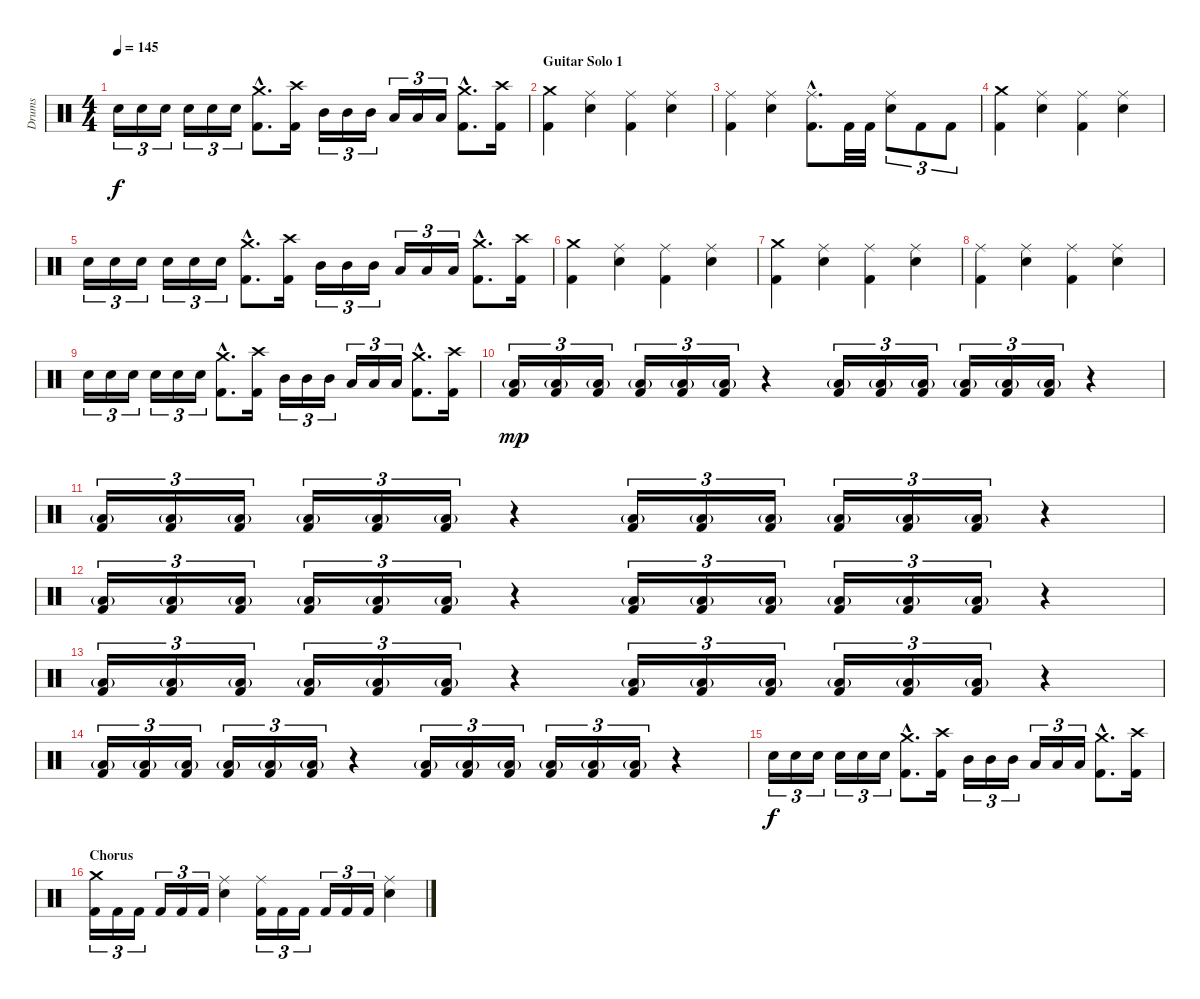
\track ("Drums" "Drums") {instrument percussion}
\staff {score}
\articulation defaults
\ts (4 4)
\tempo 145
\clef neutral
\ks c "Electric Snare (hit)".16{tu (3 2) dy f} "Electric Snare (hit)".16{tu (3 2)} "Electric Snare (hit)".16{tu (3 2)} "Electric Snare (hit)".16{tu (3 2)} "Electric Snare (hit)".16{tu (3 2)} "Electric Snare (hit)".16{tu (3 2)}
("Crash medium (hit)"{hac} "Kick (hit) 2"{hac}).8{d} ("Crash high (hit)" "Kick (hit) 2").16 "Mid Tom (hit)".16{tu (3 2)} "Mid Tom (hit)".16{tu (3 2)} "Mid Tom (hit)".16{tu (3 2)} "Low Tom (hit)".16{tu (3 2)} "Low Tom (hit)".16{tu (3 2)} "Low Tom (hit)".16{tu (3 2)} ("Crash medium (hit)"{hac} "Kick (hit) 2"{hac}).8{d} ("Crash high (hit)" "Kick (hit) 2").16 |
\section ("" "Guitar Solo 1")
("Crash medium (hit)" "Kick (hit) 2").4 ("Ride (middle)" "Electric Snare (hit)").4 ("Ride (middle)" "Kick (hit) 2").4 ("Ride (middle)" "Electric Snare (hit)").4 |
("Ride (middle)" "Kick (hit) 2").4 ("Ride (middle)" "Electric Snare (hit)").4 ("Ride (middle)"{hac} "Kick (hit) 2"{hac}).8{d} "Kick (hit) 2".32 "Kick (hit) 2".32 ("Ride (middle)" "Electric Snare (hit)").8{tu (3 2)} "Kick (hit) 2".8{tu (3 2)} "Kick (hit) 2".8{tu (3 2)} |
("Crash medium (hit)" "Kick (hit) 2").4 ("Ride (middle)" "Electric Snare (hit)").4 ("Ride (middle)" "Kick (hit) 2").4 ("Ride (middle)" "Electric Snare (hit)").4 |
"Electric Snare (hit)".16{tu (3 2)} "Electric Snare (hit)".16{tu (3 2)} "Electric Snare (hit)".16{tu (3 2)} "Electric Snare (hit)".16{tu (3 2)} "Electric Snare (hit)".16{tu (3 2)} "Electric Snare (hit)".16{tu (3 2)} ("Crash medium (hit)"{hac} "Kick (hit) 2"{hac}).8{d} ("Crash high (hit)" "Kick (hit) 2").16 "Mid Tom (hit)".16{tu (3 2)} "Mid Tom (hit)".16{tu (3 2)} "Mid Tom (hit)".16{tu (3 2)} "Low Tom (hit)".16{tu (3 2)} "Low Tom (hit)".16{tu (3 2)} "Low Tom (hit)".16{tu (3 2)} ("Crash medium (hit)"{hac} "Kick (hit) 2"{hac}).8{d} ("Crash high (hit)" "Kick (hit) 2").16 |
("Crash medium (hit)" "Kick (hit) 2").4 ("Ride (middle)" "Electric Snare (hit)").4 ("Ride (middle)" "Kick (hit) 2").4 ("Ride (middle)" "Electric Snare (hit)").4 |
("Crash medium (hit)" "Kick (hit) 2").4 ("Ride (middle)" "Electric Snare (hit)").4 ("Ride (middle)" "Kick (hit) 2").4 ("Ride (middle)" "Electric Snare (hit)").4 |
("Ride (middle)" "Kick (hit) 2").4 ("Ride (middle)" "Electric Snare (hit)").4 ("Ride (middle)" "Kick (hit) 2").4 ("Ride (middle)" "Electric Snare (hit)").4 |
"Electric Snare (hit)".16{tu (3 2)} "Electric Snare (hit)".16{tu (3 2)} "Electric Snare (hit)".16{tu (3 2)} "Electric Snare (hit)".16{tu (3 2)} "Electric Snare (hit)".16{tu (3 2)} "Electric Snare (hit)".16{tu (3 2)} ("Crash medium (hit)"{hac} "Kick (hit) 2"{hac}).8{d} ("Crash high (hit)" "Kick (hit) 2").16 "Mid Tom (hit)".16{tu (3 2)} "Mid Tom (hit)".16{tu (3 2)} "Mid Tom (hit)".16{tu (3 2)} "Low Tom (hit)".16{tu (3 2)} "Low Tom (hit)".16{tu (3 2)} "Low Tom (hit)".16{tu (3 2)} ("Crash medium (hit)"{hac} "Kick (hit) 2"{hac}).8{d} ("Crash high (hit)" "Kick (hit) 2").16 |
\section ("" "")
("Low Floor Tom (hit)"{g} "Kick (hit) 2").16{tu (3 2) dy mp} ("Low Floor Tom (hit)"{g} "Kick (hit) 2").16{tu (3 2)} ("Low Floor Tom (hit)"{g} "Kick (hit) 2").16{tu (3 2)} ("Low Floor Tom (hit)"{g} "Kick (hit) 2").16{tu (3 2)} ("Low Floor Tom (hit)"{g} "Kick (hit) 2").16{tu (3 2)} ("Low Floor Tom (hit)"{g} "Kick (hit) 2").16{tu (3 2)} r.4 ("Low Floor Tom (hit)"{g} "Kick (hit) 2").16{tu (3 2)} ("Low Floor Tom (hit)"{g} "Kick (hit) 2").16{tu (3 2)} ("Low Floor Tom (hit)"{g} "Kick (hit) 2").16{tu (3 2)} ("Low Floor Tom (hit)"{g} "Kick (hit) 2").16{tu (3 2)} ("Low Floor Tom (hit)"{g} "Kick (hit) 2").16{tu (3 2)} ("Low Floor Tom (hit)"{g} "Kick (hit) 2").16{tu (3 2)} r.4 |
("Low Floor Tom (hit)"{g} "Kick (hit) 2").16{tu (3 2)} ("Low Floor Tom (hit)"{g} "Kick (hit) 2").16{tu (3 2)} ("Low Floor Tom (hit)"{g} "Kick (hit) 2").16{tu (3 2)} ("Low Floor Tom (hit)"{g} "Kick (hit) 2").16{tu (3 2)} ("Low Floor Tom (hit)"{g} "Kick (hit) 2").16{tu (3 2)} ("Low Floor Tom (hit)"{g} "Kick (hit) 2").16{tu (3 2)} r.4 ("Low Floor Tom (hit)"{g} "Kick (hit) 2").16{tu (3 2)} ("Low Floor Tom (hit)"{g} "Kick (hit) 2").16{tu (3 2)} ("Low Floor Tom (hit)"{g} "Kick (hit) 2").16{tu (3 2)} ("Low Floor Tom (hit)"{g} "Kick (hit) 2").16{tu (3 2)} ("Low Floor Tom (hit)"{g} "Kick (hit) 2").16{tu (3 2)} ("Low Floor Tom (hit)"{g} "Kick (hit) 2").16{tu (3 2)} r.4 |
("Low Floor Tom (hit)"{g} "Kick (hit) 2").16{tu (3 2)} ("Low Floor Tom (hit)"{g} "Kick (hit) 2").16{tu (3 2)} ("Low Floor Tom (hit)"{g} "Kick (hit) 2").16{tu (3 2)} ("Low Floor Tom (hit)"{g} "Kick (hit) 2").16{tu (3 2)} ("Low Floor Tom (hit)"{g} "Kick (hit) 2").16{tu (3 2)} ("Low Floor Tom (hit)"{g} "Kick (hit) 2").16{tu (3 2)} r.4 ("Low Floor Tom (hit)"{g} "Kick (hit) 2").16{tu (3 2)} ("Low Floor Tom (hit)"{g} "Kick (hit) 2").16{tu (3 2)} ("Low Floor Tom (hit)"{g} "Kick (hit) 2").16{tu (3 2)} ("Low Floor Tom (hit)"{g} "Kick (hit) 2").16{tu (3 2)} ("Low Floor Tom (hit)"{g} "Kick (hit) 2").16{tu (3 2)} ("Low Floor Tom (hit)"{g} "Kick (hit) 2").16{tu (3 2)} r.4 |
("Low Floor Tom (hit)"{g} "Kick (hit) 2").16{tu (3 2)} ("Low Floor Tom (hit)"{g} "Kick (hit) 2").16{tu (3 2)} ("Low Floor Tom (hit)"{g} "Kick (hit) 2").16{tu (3 2)} ("Low Floor Tom (hit)"{g} "Kick (hit) 2").16{tu (3 2)} ("Low Floor Tom (hit)"{g} "Kick (hit) 2").16{tu (3 2)} ("Low Floor Tom (hit)"{g} "Kick (hit) 2").16{tu (3 2)} r.4 ("Low Floor Tom (hit)"{g} "Kick (hit) 2").16{tu (3 2)} ("Low Floor Tom (hit)"{g} "Kick (hit) 2").16{tu (3 2)} ("Low Floor Tom (hit)"{g} "Kick (hit) 2").16{tu (3 2)} ("Low Floor Tom (hit)"{g} "Kick (hit) 2").16{tu (3 2)} ("Low Floor Tom (hit)"{g} "Kick (hit) 2").16{tu (3 2)} ("Low Floor Tom (hit)"{g} "Kick (hit) 2").16{tu (3 2)} r.4 |
("Low Floor Tom (hit)"{g} "Kick (hit) 2").16{tu (3 2)} ("Low Floor Tom (hit)"{g} "Kick (hit) 2").16{tu (3 2)} ("Low Floor Tom (hit)"{g} "Kick (hit) 2").16{tu (3 2)} ("Low Floor Tom (hit)"{g} "Kick (hit) 2").16{tu (3 2)} ("Low Floor Tom (hit)"{g} "Kick (hit) 2").16{tu (3 2)} ("Low Floor Tom (hit)"{g} "Kick (hit) 2").16{tu (3 2)} r.4 ("Low Floor Tom (hit)"{g} "Kick (hit) 2").16{tu (3 2)} ("Low Floor Tom (hit)"{g} "Kick (hit) 2").16{tu (3 2)} ("Low Floor Tom (hit)"{g} "Kick (hit) 2").16{tu (3 2)} ("Low Floor Tom (hit)"{g} "Kick (hit) 2").16{tu (3 2)} ("Low Floor Tom (hit)"{g} "Kick (hit) 2").16{tu (3 2)} ("Low Floor Tom (hit)"{g} "Kick (hit) 2").16{tu (3 2)} r.4 |
"Electric Snare (hit)".16{tu (3 2) dy f} "Electric Snare (hit)".16{tu (3 2)} "Electric Snare (hit)".16{tu (3 2)} "Electric Snare (hit)".16{tu (3 2)} "Electric Snare (hit)".16{tu (3 2)} "Electric Snare (hit)".16{tu (3 2)} ("Crash medium (hit)"{hac} "Kick (hit) 2"{hac}).8{d} ("Crash high (hit)" "Kick (hit) 2").16 "Mid Tom (hit)".16{tu (3 2)} "Mid Tom (hit)".16{tu (3 2)} "Mid Tom (hit)".16{tu (3 2)} "Low Tom (hit)".16{tu (3 2)} "Low Tom (hit)".16{tu (3 2)} "Low Tom (hit)".16{tu (3 2)} ("Crash medium (hit)"{hac} "Kick (hit) 2"{hac}).8{d} ("Crash high (hit)" "Kick (hit) 2").16 |
\section ("" "Chorus")
("Crash medium (hit)" "Kick (hit) 2").16{tu (3 2)} "Kick (hit) 2".16{tu (3 2)} "Kick (hit) 2".16{tu (3 2)} "Kick (hit) 2".16{tu (3 2)} "Kick (hit) 2".16{tu (3 2)} "Kick (hit) 2".16{tu (3 2)} ("Ride (middle)" "Electric Snare (hit)").4 ("Ride (middle)" "Kick (hit) 2").16{tu (3 2)} "Kick (hit) 2".16{tu (3 2)} "Kick (hit) 2".16{tu (3 2)} "Kick (hit) 2".16{tu (3 2)} "Kick (hit) 2".16{tu (3 2)} "Kick (hit) 2".16{tu (3 2)} ("Ride (middle)" "Electric Snare (hit)").4
